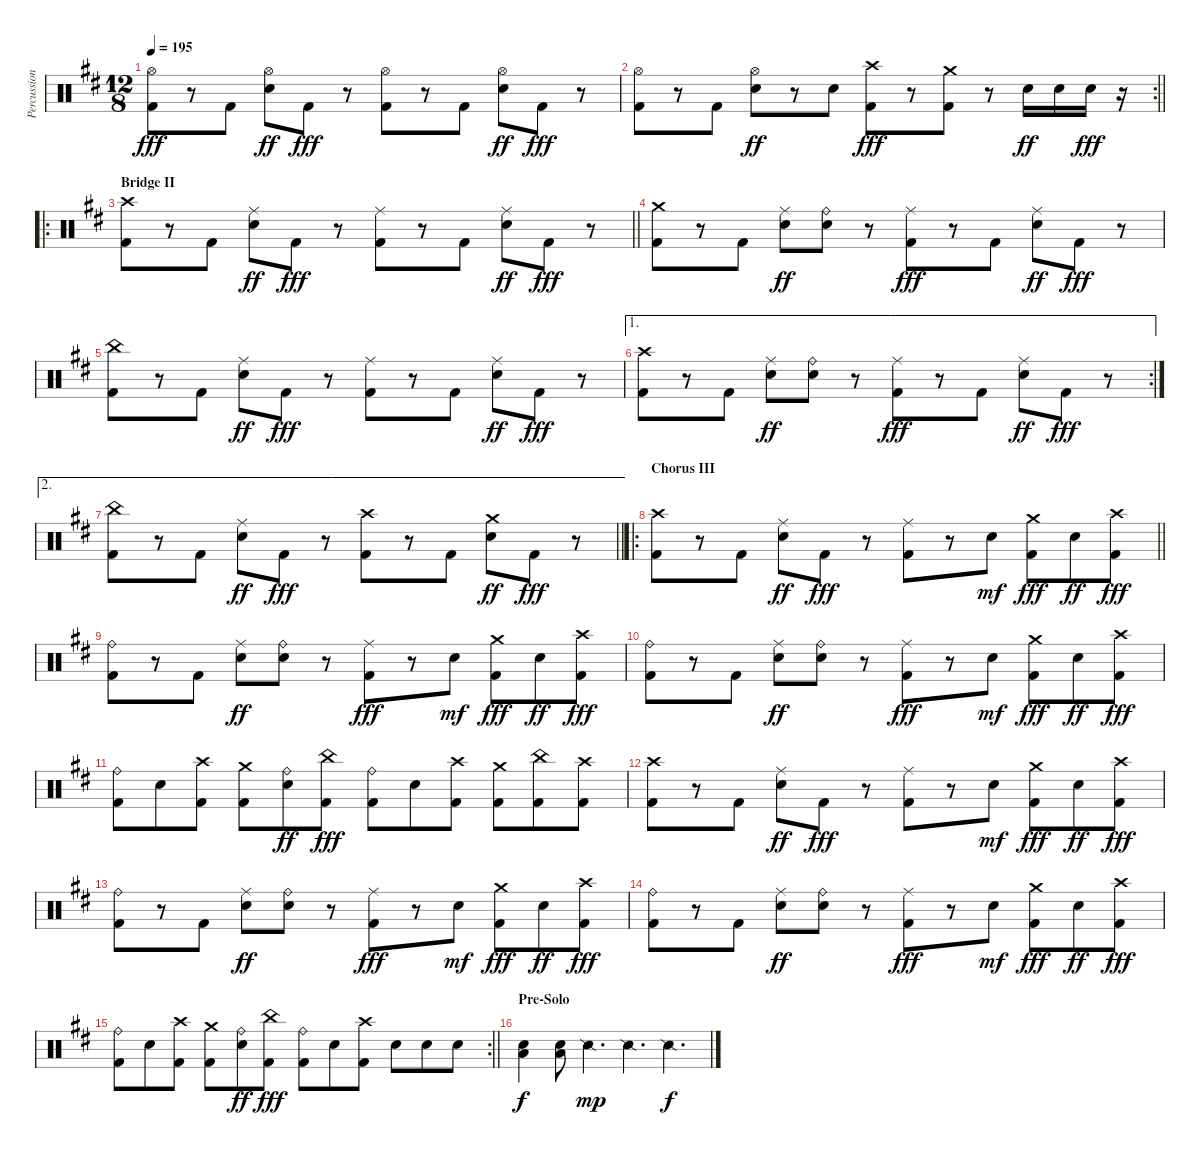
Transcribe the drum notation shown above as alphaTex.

\track ("Percussion" "Percussion") {instrument percussion}
\staff {score}
\articulation defaults
\ts (12 8)
\tempo 195
\clef neutral
\ks d
("Hi-Hat (open)" "Kick (hit) 2").8{dy fff} r.8 "Kick (hit) 2".8 ("Hi-Hat (open)" "Snare (hit) 2").8{dy ff} "Kick (hit) 2".8{dy fff} r.8 ("Hi-Hat (open)" "Kick (hit) 2").8 r.8 "Kick (hit) 2".8 ("Hi-Hat (open)" "Snare (hit) 2").8{dy ff} "Kick (hit) 2".8{dy fff} r.8 |
\rc 2
\barLineRight lightlight
("Hi-Hat (open)" "Kick (hit) 2").8 r.8 "Kick (hit) 2".8 ("Hi-Hat (open)" "Snare (hit) 2").8{dy ff} r.8 "Snare (hit) 2".8 ("Crash high (hit)" "Kick (hit) 2").8{dy fff} r.8 ("Crash medium (hit)" "Kick (hit) 2").8 r.8 "Snare (hit) 2".16{dy ff} "Snare (hit) 2".16 "Snare (hit) 2".16{dy fff} r.16 |
\ro
\section ("" "Bridge II")
\barLineRight lightlight
("Crash high (hit)" "Kick (hit) 2").8 r.8 "Kick (hit) 2".8 ("Ride (middle)" "Snare (hit) 2").8{dy ff} "Kick (hit) 2".8{dy fff} r.8 ("Ride (middle)" "Kick (hit) 2").8 r.8 "Kick (hit) 2".8 ("Ride (middle)" "Snare (hit) 2").8{dy ff} "Kick (hit) 2".8{dy fff} r.8 |
("Crash medium (hit)" "Kick (hit) 2").8 r.8 "Kick (hit) 2".8 ("Ride (middle)" "Snare (hit) 2").8{dy ff} ("Ride (bell)" "Snare (hit) 2").8 r.8 ("Ride (middle)" "Kick (hit) 2").8{dy fff} r.8 "Kick (hit) 2".8 ("Ride (middle)" "Snare (hit) 2").8{dy ff} "Kick (hit) 2".8{dy fff} r.8 |
("China (hit)" "Kick (hit) 2").8 r.8 "Kick (hit) 2".8 ("Ride (middle)" "Snare (hit) 2").8{dy ff} "Kick (hit) 2".8{dy fff} r.8 ("Ride (middle)" "Kick (hit) 2").8 r.8 "Kick (hit) 2".8 ("Ride (middle)" "Snare (hit) 2").8{dy ff} "Kick (hit) 2".8{dy fff} r.8 |
\ae 1
\rc 2
("Crash high (hit)" "Kick (hit) 2").8 r.8 "Kick (hit) 2".8 ("Ride (middle)" "Snare (hit) 2").8{dy ff} ("Ride (bell)" "Snare (hit) 2").8 r.8 ("Ride (middle)" "Kick (hit) 2").8{dy fff} r.8 "Kick (hit) 2".8 ("Ride (middle)" "Snare (hit) 2").8{dy ff} "Kick (hit) 2".8{dy fff} r.8 |
\ae 2
\barLineRight lightlight
("China (hit)" "Kick (hit) 2").8 r.8 "Kick (hit) 2".8 ("Ride (middle)" "Snare (hit) 2").8{dy ff} "Kick (hit) 2".8{dy fff} r.8 ("Crash high (hit)" "Kick (hit) 2").8 r.8 "Kick (hit) 2".8 ("Crash medium (hit)" "Snare (hit) 2").8{dy ff} "Kick (hit) 2".8{dy fff} r.8 |
\ro
\section ("" "Chorus III")
\barLineRight lightlight
("Crash high (hit)" "Kick (hit) 2").8 r.8 "Kick (hit) 2".8 ("Ride (middle)" "Snare (hit) 2").8{dy ff} "Kick (hit) 2".8{dy fff} r.8 ("Ride (middle)" "Kick (hit) 2").8 r.8 "Snare (hit) 2".8{dy mf} ("Crash medium (hit)" "Kick (hit) 2").8{dy fff} "Snare (hit) 2".8{dy ff} ("Crash high (hit)" "Kick (hit) 2").8{dy fff} |
("Ride (bell)" "Kick (hit) 2").8 r.8 "Kick (hit) 2".8 ("Ride (middle)" "Snare (hit) 2").8{dy ff} ("Ride (bell)" "Snare (hit) 2").8 r.8 ("Ride (middle)" "Kick (hit) 2").8{dy fff} r.8 "Snare (hit) 2".8{dy mf} ("Crash medium (hit)" "Kick (hit) 2").8{dy fff} "Snare (hit) 2".8{dy ff} ("Crash high (hit)" "Kick (hit) 2").8{dy fff} |
("Ride (bell)" "Kick (hit) 2").8 r.8 "Kick (hit) 2".8 ("Ride (middle)" "Snare (hit) 2").8{dy ff} ("Ride (bell)" "Snare (hit) 2").8 r.8 ("Ride (middle)" "Kick (hit) 2").8{dy fff} r.8 "Snare (hit) 2".8{dy mf} ("Crash medium (hit)" "Kick (hit) 2").8{dy fff} "Snare (hit) 2".8{dy ff} ("Crash high (hit)" "Kick (hit) 2").8{dy fff} |
("Ride (bell)" "Kick (hit) 2").8 "Snare (hit) 2".8 ("Crash high (hit)" "Kick (hit) 2").8 ("Crash medium (hit)" "Kick (hit) 2").8 ("Ride (bell)" "Snare (hit) 2").8{dy ff} ("China (hit)" "Kick (hit) 2").8{dy fff} ("Ride (bell)" "Kick (hit) 2").8 "Snare (hit) 2".8 ("Crash high (hit)" "Kick (hit) 2").8 ("Crash medium (hit)" "Kick (hit) 2").8 ("China (hit)" "Kick (hit) 2").8 ("Crash high (hit)" "Kick (hit) 2").8 |
("Crash high (hit)" "Kick (hit) 2").8 r.8 "Kick (hit) 2".8 ("Ride (middle)" "Snare (hit) 2").8{dy ff} "Kick (hit) 2".8{dy fff} r.8 ("Ride (middle)" "Kick (hit) 2").8 r.8 "Snare (hit) 2".8{dy mf} ("Crash medium (hit)" "Kick (hit) 2").8{dy fff} "Snare (hit) 2".8{dy ff} ("Crash high (hit)" "Kick (hit) 2").8{dy fff} |
("Ride (bell)" "Kick (hit) 2").8 r.8 "Kick (hit) 2".8 ("Ride (middle)" "Snare (hit) 2").8{dy ff} ("Ride (bell)" "Snare (hit) 2").8 r.8 ("Ride (middle)" "Kick (hit) 2").8{dy fff} r.8 "Snare (hit) 2".8{dy mf} ("Crash medium (hit)" "Kick (hit) 2").8{dy fff} "Snare (hit) 2".8{dy ff} ("Crash high (hit)" "Kick (hit) 2").8{dy fff} |
("Ride (bell)" "Kick (hit) 2").8 r.8 "Kick (hit) 2".8 ("Ride (middle)" "Snare (hit) 2").8{dy ff} ("Ride (bell)" "Snare (hit) 2").8 r.8 ("Ride (middle)" "Kick (hit) 2").8{dy fff} r.8 "Snare (hit) 2".8{dy mf} ("Crash medium (hit)" "Kick (hit) 2").8{dy fff} "Snare (hit) 2".8{dy ff} ("Crash high (hit)" "Kick (hit) 2").8{dy fff} |
\rc 2
\barLineRight lightlight
("Ride (bell)" "Kick (hit) 2").8 "Snare (hit) 2".8 ("Crash high (hit)" "Kick (hit) 2").8 ("Crash medium (hit)" "Kick (hit) 2").8 ("Ride (bell)" "Snare (hit) 2").8{dy ff} ("China (hit)" "Kick (hit) 2").8{dy fff} ("Ride (bell)" "Kick (hit) 2").8 "Snare (hit) 2".8 ("Crash high (hit)" "Kick (hit) 2").8 "Snare (hit) 2".8 "Snare (hit) 2".8 "Snare (hit) 2".8 |
\section ("" "Pre-Solo")
("Low Floor Tom (hit)" "Snare (hit) 2").4{dy f} ("Low Floor Tom (hit)" "Snare (hit) 2").8 "Snare (side stick) 2".4{d dy mp} "Snare (side stick) 2".4{d} "Snare (side stick) 2".4{d dy f}
